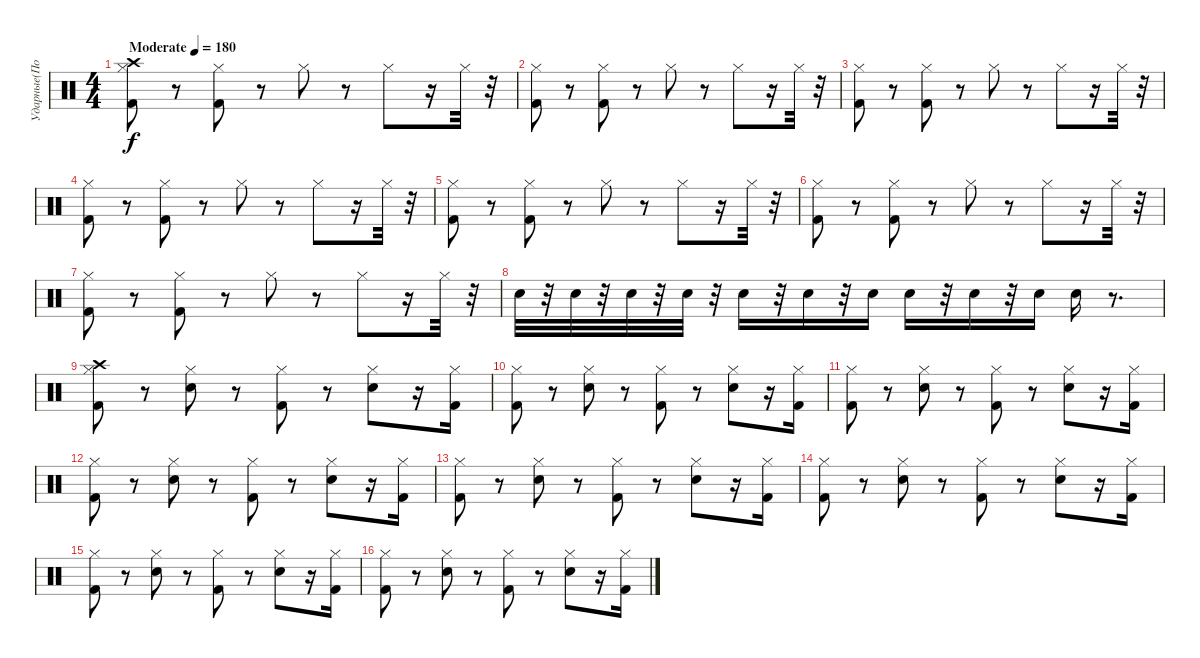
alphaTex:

\track ("Ударные(Потапкин)" "Ударные(По") {instrument percussion}
\staff {score}
\articulation defaults
\ts (4 4)
\tempo (180 "Moderate")
\clef neutral
\ks c
("Crash high (hit)" "Hi-Hat (closed)" "Kick (hit) 2").8{dy f} r.8 ("Hi-Hat (closed)" "Kick (hit) 2").8 r.8 "Hi-Hat (closed)".8 r.8 "Hi-Hat (closed)".8 r.16 "Hi-Hat (closed)".32 r.32 |
("Hi-Hat (closed)" "Kick (hit) 2").8 r.8 ("Hi-Hat (closed)" "Kick (hit) 2").8 r.8 "Hi-Hat (closed)".8 r.8 "Hi-Hat (closed)".8 r.16 "Hi-Hat (closed)".32 r.32 |
("Hi-Hat (closed)" "Kick (hit) 2").8 r.8 ("Hi-Hat (closed)" "Kick (hit) 2").8 r.8 "Hi-Hat (closed)".8 r.8 "Hi-Hat (closed)".8 r.16 "Hi-Hat (closed)".32 r.32 |
("Hi-Hat (closed)" "Kick (hit) 2").8 r.8 ("Hi-Hat (closed)" "Kick (hit) 2").8 r.8 "Hi-Hat (closed)".8 r.8 "Hi-Hat (closed)".8 r.16 "Hi-Hat (closed)".32 r.32 |
("Hi-Hat (closed)" "Kick (hit) 2").8 r.8 ("Hi-Hat (closed)" "Kick (hit) 2").8 r.8 "Hi-Hat (closed)".8 r.8 "Hi-Hat (closed)".8 r.16 "Hi-Hat (closed)".32 r.32 |
("Hi-Hat (closed)" "Kick (hit) 2").8 r.8 ("Hi-Hat (closed)" "Kick (hit) 2").8 r.8 "Hi-Hat (closed)".8 r.8 "Hi-Hat (closed)".8 r.16 "Hi-Hat (closed)".32 r.32 |
("Hi-Hat (closed)" "Kick (hit) 2").8 r.8 ("Hi-Hat (closed)" "Kick (hit) 2").8 r.8 "Hi-Hat (closed)".8 r.8 "Hi-Hat (closed)".8 r.16 "Hi-Hat (closed)".32 r.32 |
"Electric Snare (hit)".32 r.32 "Electric Snare (hit)".32 r.32 "Electric Snare (hit)".32 r.32 "Electric Snare (hit)".32 r.32 "Electric Snare (hit)".16 r.32 "Electric Snare (hit)".16 r.32 "Electric Snare (hit)".16 "Electric Snare (hit)".16 r.32 "Electric Snare (hit)".16 r.32 "Electric Snare (hit)".16 "Snare (hit) 2".16 r.8{d} |
("Crash high (hit)" "Hi-Hat (closed)" "Kick (hit) 2").8 r.8 ("Hi-Hat (closed)" "Electric Snare (hit)").8 r.8 ("Hi-Hat (closed)" "Kick (hit) 2").8 r.8 ("Hi-Hat (closed)" "Electric Snare (hit)").8 r.16 ("Hi-Hat (closed)" "Kick (hit) 2").16 |
("Kick (hit) 2" "Hi-Hat (closed)").8 r.8 ("Electric Snare (hit)" "Hi-Hat (closed)").8 r.8 ("Kick (hit) 2" "Hi-Hat (closed)").8 r.8 ("Electric Snare (hit)" "Hi-Hat (closed)").8 r.16 ("Kick (hit) 2" "Hi-Hat (closed)").16 |
("Kick (hit) 2" "Hi-Hat (closed)").8 r.8 ("Electric Snare (hit)" "Hi-Hat (closed)").8 r.8 ("Kick (hit) 2" "Hi-Hat (closed)").8 r.8 ("Electric Snare (hit)" "Hi-Hat (closed)").8 r.16 ("Kick (hit) 2" "Hi-Hat (closed)").16 |
("Kick (hit) 2" "Hi-Hat (closed)").8 r.8 ("Electric Snare (hit)" "Hi-Hat (closed)").8 r.8 ("Kick (hit) 2" "Hi-Hat (closed)").8 r.8 ("Electric Snare (hit)" "Hi-Hat (closed)").8 r.16 ("Kick (hit) 2" "Hi-Hat (closed)").16 |
("Kick (hit) 2" "Hi-Hat (closed)").8 r.8 ("Electric Snare (hit)" "Hi-Hat (closed)").8 r.8 ("Kick (hit) 2" "Hi-Hat (closed)").8 r.8 ("Electric Snare (hit)" "Hi-Hat (closed)").8 r.16 ("Kick (hit) 2" "Hi-Hat (closed)").16 |
("Hi-Hat (closed)" "Kick (hit) 2").8 r.8 ("Hi-Hat (closed)" "Electric Snare (hit)").8 r.8 ("Hi-Hat (closed)" "Kick (hit) 2").8 r.8 ("Hi-Hat (closed)" "Electric Snare (hit)").8 r.16 ("Hi-Hat (closed)" "Kick (hit) 2").16 |
("Hi-Hat (closed)" "Kick (hit) 2").8 r.8 ("Hi-Hat (closed)" "Electric Snare (hit)").8 r.8 ("Hi-Hat (closed)" "Kick (hit) 2").8 r.8 ("Hi-Hat (closed)" "Electric Snare (hit)").8 r.16 ("Hi-Hat (closed)" "Kick (hit) 2").16 |
("Hi-Hat (closed)" "Kick (hit) 2").8 r.8 ("Hi-Hat (closed)" "Electric Snare (hit)").8 r.8 ("Hi-Hat (closed)" "Kick (hit) 2").8 r.8 ("Hi-Hat (closed)" "Electric Snare (hit)").8 r.16 ("Hi-Hat (closed)" "Kick (hit) 2").16
